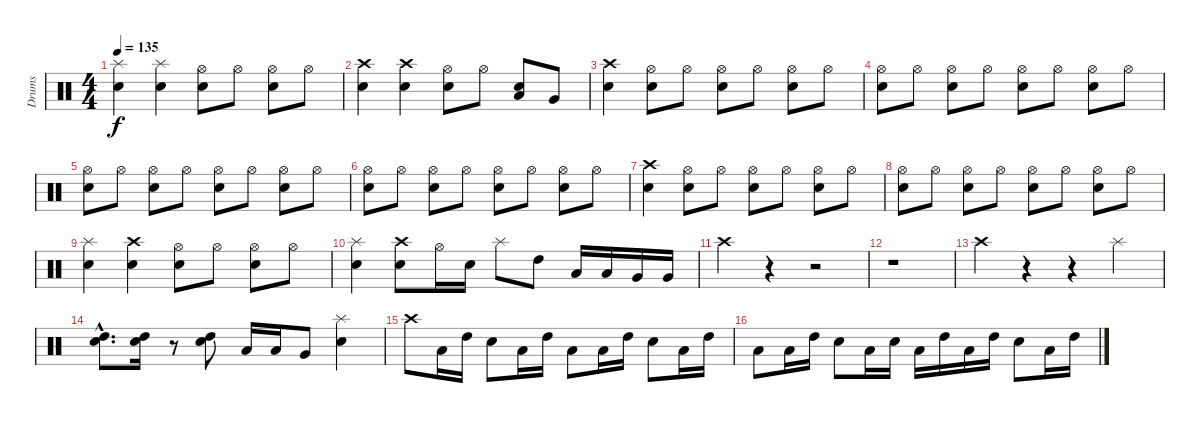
\track ("Drums" "Drums") {instrument percussion}
\staff {score}
\articulation defaults
\ts (4 4)
\tempo 135
\clef neutral
\ks c
("Splash (hit)" "Snare (hit) 2").4{dy f} ("Splash (hit)" "Snare (hit) 2").4 ("Hi-Hat (open)" "Snare (hit) 2").8 "Hi-Hat (open)".8 ("Hi-Hat (open)" "Snare (hit) 2").8 "Hi-Hat (open)".8 |
("Crash high (hit)" "Snare (hit) 2").4 ("Crash high (hit)" "Snare (hit) 2").4 ("Hi-Hat (open)" "Snare (hit) 2").8 "Hi-Hat (open)".8 ("Snare (hit) 2" "Low Tom (hit)").8 "Very Low Tom (hit)".8 |
("Crash high (hit)" "Snare (hit) 2").4 ("Hi-Hat (open)" "Snare (hit) 2").8 "Hi-Hat (open)".8 ("Hi-Hat (open)" "Snare (hit) 2").8 "Hi-Hat (open)".8 ("Hi-Hat (open)" "Snare (hit) 2").8 "Hi-Hat (open)".8 |
("Hi-Hat (open)" "Snare (hit) 2").8 "Hi-Hat (open)".8 ("Hi-Hat (open)" "Snare (hit) 2").8 "Hi-Hat (open)".8 ("Hi-Hat (open)" "Snare (hit) 2").8 "Hi-Hat (open)".8 ("Hi-Hat (open)" "Snare (hit) 2").8 "Hi-Hat (open)".8 |
("Hi-Hat (open)" "Snare (hit) 2").8 "Hi-Hat (open)".8 ("Hi-Hat (open)" "Snare (hit) 2").8 "Hi-Hat (open)".8 ("Hi-Hat (open)" "Snare (hit) 2").8 "Hi-Hat (open)".8 ("Hi-Hat (open)" "Snare (hit) 2").8 "Hi-Hat (open)".8 |
("Hi-Hat (open)" "Snare (hit) 2").8 "Hi-Hat (open)".8 ("Hi-Hat (open)" "Snare (hit) 2").8 "Hi-Hat (open)".8 ("Hi-Hat (open)" "Snare (hit) 2").8 "Hi-Hat (open)".8 ("Hi-Hat (open)" "Snare (hit) 2").8 "Hi-Hat (open)".8 |
("Crash high (hit)" "Snare (hit) 2").4 ("Hi-Hat (open)" "Snare (hit) 2").8 "Hi-Hat (open)".8 ("Hi-Hat (open)" "Snare (hit) 2").8 "Hi-Hat (open)".8 ("Hi-Hat (open)" "Snare (hit) 2").8 "Hi-Hat (open)".8 |
("Hi-Hat (open)" "Snare (hit) 2").8 "Hi-Hat (open)".8 ("Hi-Hat (open)" "Snare (hit) 2").8 "Hi-Hat (open)".8 ("Hi-Hat (open)" "Snare (hit) 2").8 "Hi-Hat (open)".8 ("Hi-Hat (open)" "Snare (hit) 2").8 "Hi-Hat (open)".8 |
("Splash (hit)" "Snare (hit) 2").4 ("Crash high (hit)" "Snare (hit) 2").4 ("Hi-Hat (open)" "Snare (hit) 2").8 "Hi-Hat (open)".8 ("Hi-Hat (open)" "Snare (hit) 2").8 "Hi-Hat (open)".8 |
("Splash (hit)" "Snare (hit) 2").4 ("Crash high (hit)" "Snare (hit) 2").8 "Hi-Hat (open)".16 "Snare (hit) 2".16 "Splash (hit)".8 "High Tom (hit)".8 "Low Tom (hit)".16 "Low Tom (hit)".16 "Very Low Tom (hit)".16 "Very Low Tom (hit)".16 |
"Crash high (hit)".4 r.4 r.2 |
r.1 |
"Crash high (hit)".4 r.4 r.4 "Splash (hit)".4 |
("High Tom (hit)"{hac} "Snare (hit) 2"{hac}).8{d} ("High Tom (hit)" "Snare (hit) 2").16 r.8 ("High Tom (hit)" "Snare (hit) 2").8 "Low Tom (hit)".16 "Low Tom (hit)".16 "Very Low Tom (hit)".8 ("Splash (hit)" "Snare (hit) 2").4 |
"Crash high (hit)".8 "Low Tom (hit)".16 "High Tom (hit)".16 "Snare (hit) 2".8 "Low Tom (hit)".16 "High Tom (hit)".16 "Low Tom (hit)".8 "Low Tom (hit)".16 "High Tom (hit)".16 "Snare (hit) 2".8 "Low Tom (hit)".16 "High Tom (hit)".16 |
"Low Tom (hit)".8 "Low Tom (hit)".16 "High Tom (hit)".16 "Snare (hit) 2".8 "Low Tom (hit)".16 "Snare (hit) 2".16 "Low Tom (hit)".16 "High Tom (hit)".16 "Low Tom (hit)".16 "High Tom (hit)".16 "Snare (hit) 2".8 "Low Tom (hit)".16 "High Tom (hit)".16
